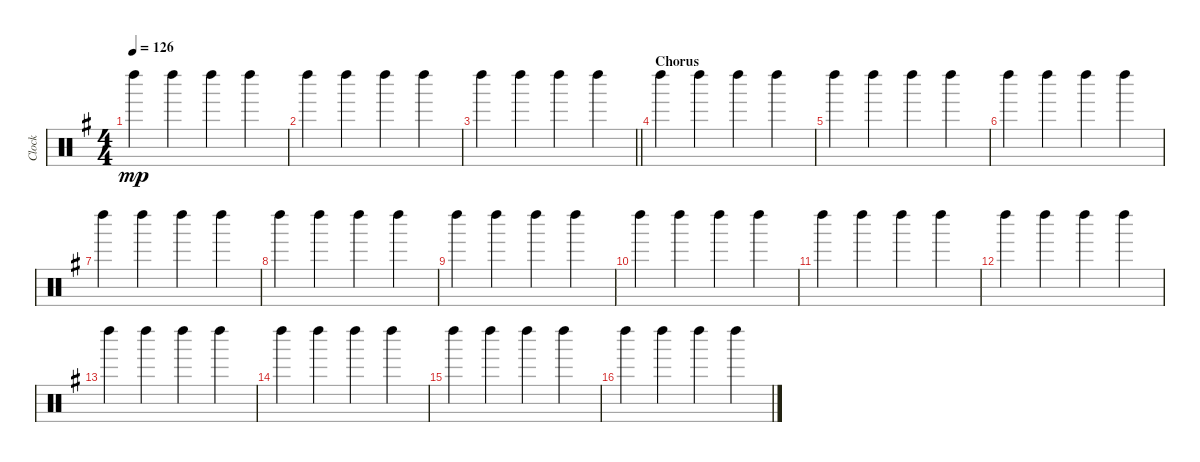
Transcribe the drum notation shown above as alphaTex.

\track ("Clock" "Clock") {instrument percussion}
\staff {score}
\articulation defaults
\ts (4 4)
\tempo 126
\clef neutral
\ks eminor "Left Maraca (hit)".4{dy mp} "Left Maraca (hit)".4 "Left Maraca (hit)".4 "Left Maraca (hit)".4
|
"Left Maraca (hit)".4 "Left Maraca (hit)".4 "Left Maraca (hit)".4 "Left Maraca (hit)".4 |
\barLineRight lightlight "Left Maraca (hit)".4 "Left Maraca (hit)".4 "Left Maraca (hit)".4 "Left Maraca (hit)".4
|
\section ("" "Chorus")
"Left Maraca (hit)".4 "Left Maraca (hit)".4 "Left Maraca (hit)".4 "Left Maraca (hit)".4 |
"Left Maraca (hit)".4 "Left Maraca (hit)".4 "Left Maraca (hit)".4 "Left Maraca (hit)".4 |
"Left Maraca (hit)".4 "Left Maraca (hit)".4 "Left Maraca (hit)".4 "Left Maraca (hit)".4 |
"Left Maraca (hit)".4 "Left Maraca (hit)".4 "Left Maraca (hit)".4 "Left Maraca (hit)".4 |
"Left Maraca (hit)".4 "Left Maraca (hit)".4 "Left Maraca (hit)".4 "Left Maraca (hit)".4 |
"Left Maraca (hit)".4 "Left Maraca (hit)".4 "Left Maraca (hit)".4 "Left Maraca (hit)".4 |
"Left Maraca (hit)".4 "Left Maraca (hit)".4 "Left Maraca (hit)".4 "Left Maraca (hit)".4 |
"Left Maraca (hit)".4 "Left Maraca (hit)".4 "Left Maraca (hit)".4 "Left Maraca (hit)".4 |
"Left Maraca (hit)".4 "Left Maraca (hit)".4 "Left Maraca (hit)".4 "Left Maraca (hit)".4 |
"Left Maraca (hit)".4 "Left Maraca (hit)".4 "Left Maraca (hit)".4 "Left Maraca (hit)".4 |
"Left Maraca (hit)".4 "Left Maraca (hit)".4 "Left Maraca (hit)".4 "Left Maraca (hit)".4 |
"Left Maraca (hit)".4 "Left Maraca (hit)".4 "Left Maraca (hit)".4 "Left Maraca (hit)".4 |
"Left Maraca (hit)".4 "Left Maraca (hit)".4 "Left Maraca (hit)".4 "Left Maraca (hit)".4
